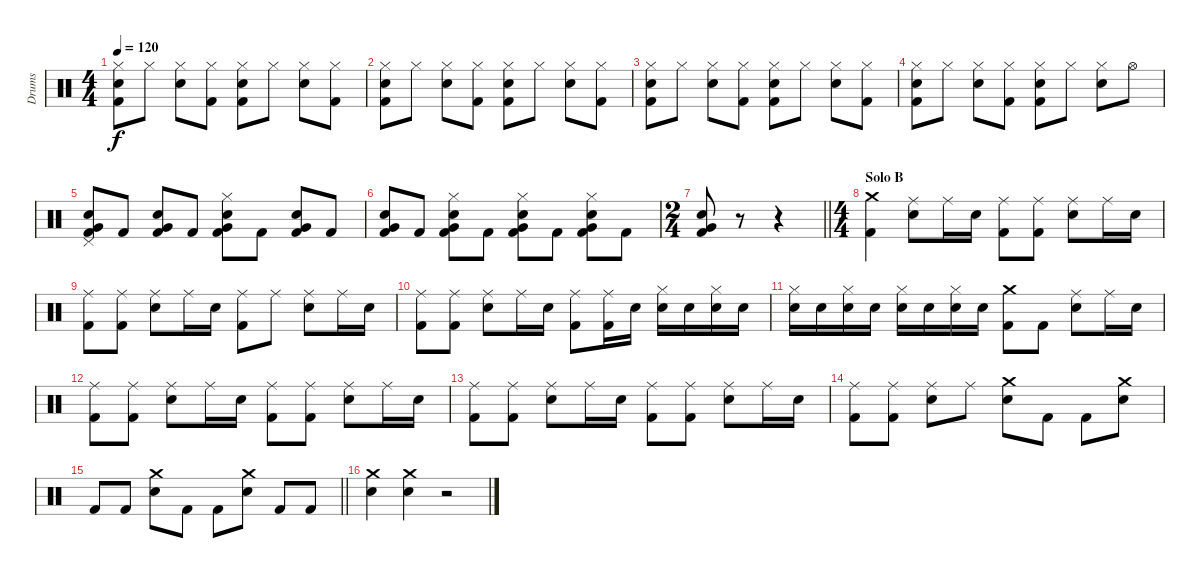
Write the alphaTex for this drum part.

\track ("Drums" "Drums") {instrument percussion}
\staff {score}
\articulation defaults
\ts (4 4)
\tempo 120
\clef neutral
\ks c
("Hi-Hat (closed)" "Electric Snare (hit)" "Kick (hit) 2").8{dy f} "Hi-Hat (closed)".8 ("Hi-Hat (closed)" "Electric Snare (hit)").8 ("Hi-Hat (closed)" "Kick (hit) 2").8 ("Hi-Hat (closed)" "Electric Snare (hit)" "Kick (hit) 2").8 "Hi-Hat (closed)".8 ("Hi-Hat (closed)" "Electric Snare (hit)").8 ("Hi-Hat (closed)" "Kick (hit) 2").8 |
("Hi-Hat (closed)" "Electric Snare (hit)" "Kick (hit) 2").8 "Hi-Hat (closed)".8 ("Hi-Hat (closed)" "Electric Snare (hit)").8 ("Hi-Hat (closed)" "Kick (hit) 2").8 ("Hi-Hat (closed)" "Electric Snare (hit)" "Kick (hit) 2").8 "Hi-Hat (closed)".8 ("Hi-Hat (closed)" "Electric Snare (hit)").8 ("Hi-Hat (closed)" "Kick (hit) 2").8 |
("Hi-Hat (closed)" "Electric Snare (hit)" "Kick (hit) 2").8 "Hi-Hat (closed)".8 ("Hi-Hat (closed)" "Electric Snare (hit)").8 ("Hi-Hat (closed)" "Kick (hit) 2").8 ("Hi-Hat (closed)" "Electric Snare (hit)" "Kick (hit) 2").8 "Hi-Hat (closed)".8 ("Hi-Hat (closed)" "Electric Snare (hit)").8 ("Hi-Hat (closed)" "Kick (hit) 2").8 |
("Hi-Hat (closed)" "Electric Snare (hit)" "Kick (hit) 2").8 "Hi-Hat (closed)".8 ("Hi-Hat (closed)" "Electric Snare (hit)").8 ("Hi-Hat (closed)" "Kick (hit) 2").8 ("Hi-Hat (closed)" "Electric Snare (hit)" "Kick (hit) 2").8 "Hi-Hat (closed)".8 ("Hi-Hat (closed)" "Electric Snare (hit)").8 "Hi-Hat (open)".8 |
("Pedal Hi-Hat (hit)" "Very Low Tom (hit)" "Electric Snare (hit)" "Kick (hit) 2").8 "Kick (hit) 2".8 ("Very Low Tom (hit)" "Electric Snare (hit)" "Kick (hit) 2").8 "Kick (hit) 2".8 ("Hi-Hat (closed)" "Very Low Tom (hit)" "Electric Snare (hit)" "Kick (hit) 2").8 "Kick (hit) 2".8 ("Very Low Tom (hit)" "Electric Snare (hit)" "Kick (hit) 2").8 "Kick (hit) 2".8 |
("Very Low Tom (hit)" "Electric Snare (hit)" "Kick (hit) 2").8 "Kick (hit) 2".8 ("Hi-Hat (closed)" "Very Low Tom (hit)" "Electric Snare (hit)" "Kick (hit) 2").8 "Kick (hit) 2".8 ("Hi-Hat (closed)" "Very Low Tom (hit)" "Electric Snare (hit)" "Kick (hit) 2").8 "Kick (hit) 2".8 ("Hi-Hat (closed)" "Very Low Tom (hit)" "Electric Snare (hit)" "Kick (hit) 2").8 "Kick (hit) 2".8 |
\ts (2 4)
\barLineRight lightlight
("Very Low Tom (hit)" "Electric Snare (hit)" "Kick (hit) 2").8 r.8 r.4 |
\ts (4 4)
\section ("" "Solo B")
("Crash medium (hit)" "Kick (hit) 2").4 ("Ride (middle)" "Electric Snare (hit)").8 "Ride (middle)".16 "Electric Snare (hit)".16 ("Ride (middle)" "Kick (hit) 2").8 ("Ride (middle)" "Kick (hit) 2").8 ("Ride (middle)" "Electric Snare (hit)").8 "Ride (middle)".16 "Electric Snare (hit)".16 |
("Ride (middle)" "Kick (hit) 2").8 ("Ride (middle)" "Kick (hit) 2").8 ("Ride (middle)" "Electric Snare (hit)").8 "Ride (middle)".16 "Electric Snare (hit)".16 ("Ride (middle)" "Kick (hit) 2").8 "Ride (middle)".8 ("Ride (middle)" "Electric Snare (hit)").8 "Ride (middle)".16 "Electric Snare (hit)".16 |
("Ride (middle)" "Kick (hit) 2").8 ("Ride (middle)" "Kick (hit) 2").8 ("Ride (middle)" "Electric Snare (hit)").8 "Ride (middle)".16 "Electric Snare (hit)".16 ("Ride (middle)" "Kick (hit) 2").8 ("Ride (middle)" "Kick (hit) 2").16 "Electric Snare (hit)".16 ("Hi-Hat (closed)" "Electric Snare (hit)").16 "Electric Snare (hit)".16 ("Hi-Hat (closed)" "Electric Snare (hit)").16 "Electric Snare (hit)".16 |
("Hi-Hat (closed)" "Electric Snare (hit)").16 "Electric Snare (hit)".16 ("Hi-Hat (closed)" "Electric Snare (hit)").16 "Electric Snare (hit)".16 ("Hi-Hat (closed)" "Electric Snare (hit)").16 "Electric Snare (hit)".16 ("Hi-Hat (closed)" "Electric Snare (hit)").16 "Electric Snare (hit)".16 ("Crash medium (hit)" "Kick (hit) 2").8 "Kick (hit) 2".8 ("Ride (middle)" "Electric Snare (hit)").8 "Ride (middle)".16 "Electric Snare (hit)".16 |
("Ride (middle)" "Kick (hit) 2").8 ("Ride (middle)" "Kick (hit) 2").8 ("Ride (middle)" "Electric Snare (hit)").8 "Ride (middle)".16 "Electric Snare (hit)".16 ("Ride (middle)" "Kick (hit) 2").8 ("Ride (middle)" "Kick (hit) 2").8 ("Ride (middle)" "Electric Snare (hit)").8 "Ride (middle)".16 "Electric Snare (hit)".16 |
("Ride (middle)" "Kick (hit) 2").8 ("Ride (middle)" "Kick (hit) 2").8 ("Ride (middle)" "Electric Snare (hit)").8 "Ride (middle)".16 "Electric Snare (hit)".16 ("Ride (middle)" "Kick (hit) 2").8 ("Ride (middle)" "Kick (hit) 2").8 ("Ride (middle)" "Electric Snare (hit)").8 "Ride (middle)".16 "Electric Snare (hit)".16 |
("Ride (middle)" "Kick (hit) 2").8 ("Ride (middle)" "Kick (hit) 2").8 ("Ride (middle)" "Electric Snare (hit)").8 "Ride (middle)".8 ("Crash medium (hit)" "Electric Snare (hit)").8 "Kick (hit) 2".8 "Kick (hit) 2".8 ("Crash medium (hit)" "Electric Snare (hit)").8 |
\barLineRight lightlight "Kick (hit) 2".8 "Kick (hit) 2".8
("Crash medium (hit)" "Electric Snare (hit)").8 "Kick (hit) 2".8 "Kick (hit) 2".8 ("Crash medium (hit)" "Electric Snare (hit)").8 "Kick (hit) 2".8 "Kick (hit) 2".8 |
("Crash medium (hit)" "Electric Snare (hit)").4 ("Crash medium (hit)" "Electric Snare (hit)").4 r.2
